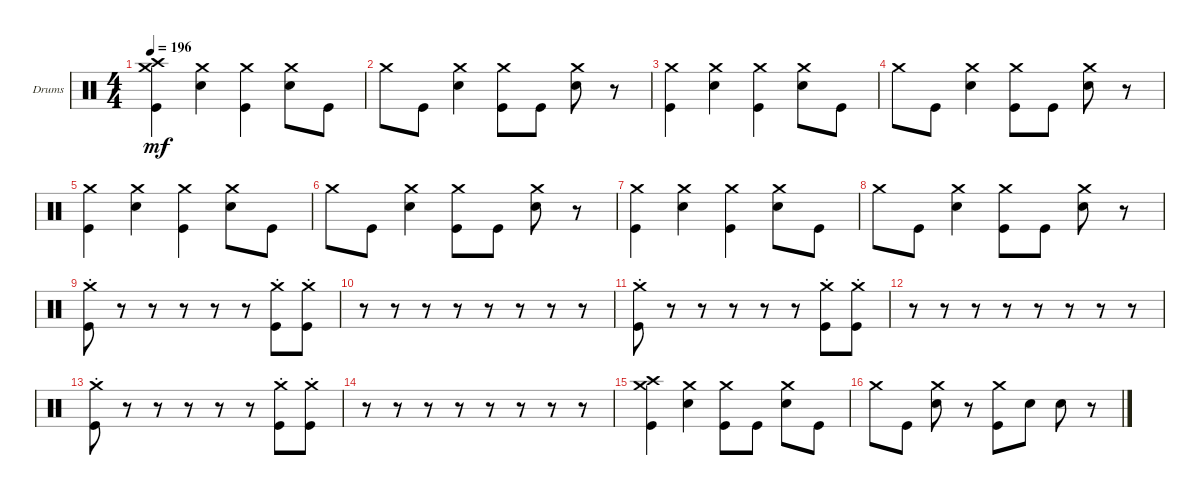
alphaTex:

\defaultSystemsLayout 4
\bracketExtendMode groupsimilarinstruments
\firstSystemTrackNameOrientation horizontal
\otherSystemsTrackNameOrientation horizontal
\track ("Drumkit" "Drums") {instrument percussion}
\staff {score}
\articulation defaults
\ts (4 4)
\tempo 196
\clef neutral
\ks c
("Crash high (hit)" "Kick (hit)" "Crash medium (hit)").4{dy mf} ("Snare (hit) 2" "Crash medium (hit)").4 ("Kick (hit)" "Crash medium (hit)").4 ("Crash medium (hit)" "Snare (hit) 2").8 "Kick (hit)".8 |
"Crash medium (hit)".8 "Kick (hit)".8 ("Snare (hit) 2" "Crash medium (hit)").4 ("Kick (hit)" "Crash medium (hit)").8 "Kick (hit)".8 ("Snare (hit) 2" "Crash medium (hit)").8 r.8 |
("Kick (hit)" "Crash medium (hit)").4 ("Snare (hit) 2" "Crash medium (hit)").4 ("Kick (hit)" "Crash medium (hit)").4 ("Snare (hit) 2" "Crash medium (hit)").8 "Kick (hit)".8 |
"Crash medium (hit)".8 "Kick (hit)".8 ("Snare (hit) 2" "Crash medium (hit)").4 ("Kick (hit)" "Crash medium (hit)").8 "Kick (hit)".8 ("Snare (hit) 2" "Crash medium (hit)").8 r.8 |
("Kick (hit)" "Crash medium (hit)").4 ("Snare (hit) 2" "Crash medium (hit)").4 ("Kick (hit)" "Crash medium (hit)").4 ("Snare (hit) 2" "Crash medium (hit)").8 "Kick (hit)".8 |
"Crash medium (hit)".8 "Kick (hit)".8 ("Snare (hit) 2" "Crash medium (hit)").4 ("Kick (hit)" "Crash medium (hit)").8 "Kick (hit)".8 ("Snare (hit) 2" "Crash medium (hit)").8 r.8 |
("Kick (hit)" "Crash medium (hit)").4 ("Snare (hit) 2" "Crash medium (hit)").4 ("Kick (hit)" "Crash medium (hit)").4 ("Snare (hit) 2" "Crash medium (hit)").8 "Kick (hit)".8 |
"Crash medium (hit)".8 "Kick (hit)".8 ("Snare (hit) 2" "Crash medium (hit)").4 ("Kick (hit)" "Crash medium (hit)").8 "Kick (hit)".8 ("Snare (hit) 2" "Crash medium (hit)").8 r.8 |
("Kick (hit)" "Crash medium (hit)"{st}).8 r.8 r.8 r.8 r.8 r.8 ("Kick (hit)" "Crash medium (hit)"{st}).8 ("Kick (hit)" "Crash medium (hit)"{st}).8 |
r.8 r.8 r.8 r.8 r.8 r.8 r.8 r.8 |
("Kick (hit)" "Crash medium (hit)"{st}).8 r.8 r.8 r.8 r.8 r.8 ("Kick (hit)" "Crash medium (hit)"{st}).8 ("Kick (hit)" "Crash medium (hit)"{st}).8 |
r.8 r.8 r.8 r.8 r.8 r.8 r.8 r.8 |
("Kick (hit)" "Crash medium (hit)"{st}).8 r.8 r.8 r.8 r.8 r.8 ("Crash medium (hit)"{st} "Kick (hit)").8 ("Kick (hit)" "Crash medium (hit)"{st}).8 |
r.8 r.8 r.8 r.8 r.8 r.8 r.8 r.8 |
("Kick (hit)" "Crash medium (hit)" "Crash high (hit)").4 ("Snare (hit) 2" "Crash medium (hit)").4 ("Kick (hit)" "Crash medium (hit)").8 "Kick (hit)".8 ("Snare (hit) 2" "Crash medium (hit)").8 "Kick (hit)".8 |
"Crash medium (hit)".8 "Kick (hit)".8 ("Snare (hit) 2" "Crash medium (hit)").8 r.8 ("Kick (hit)" "Crash medium (hit)").8 "Snare (hit) 2".8 "Snare (hit) 2".8 r.8
